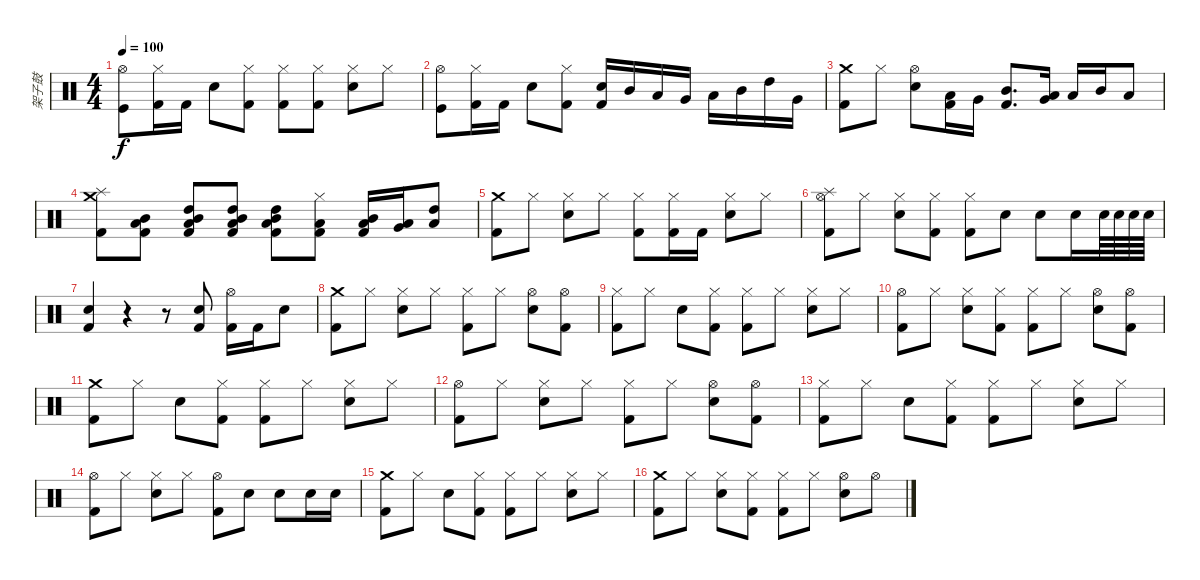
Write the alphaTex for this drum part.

\track ("架子鼓" "架子鼓") {instrument percussion}
\staff {score}
\articulation defaults
\ts (4 4)
\tempo 100
\clef neutral
\ks c
("Hi-Hat (open)" "Kick (hit)").8{dy f} ("Hi-Hat (closed)" "Kick (hit) 2").16 "Kick (hit) 2".16 "Electric Snare (hit)".8 ("Hi-Hat (closed)" "Kick (hit) 2").8 ("Hi-Hat (closed)" "Kick (hit) 2").8 ("Hi-Hat (closed)" "Kick (hit) 2").8 ("Hi-Hat (closed)" "Electric Snare (hit)").8 "Hi-Hat (closed)".8 |
("Hi-Hat (open)" "Kick (hit)").8 ("Hi-Hat (closed)" "Kick (hit) 2").16 "Kick (hit) 2".16 "Electric Snare (hit)".8 ("Hi-Hat (closed)" "Kick (hit) 2").8 ("Electric Snare (hit)" "Kick (hit) 2").16 "Mid Tom (hit)".16 "Low Tom (hit)".16 "Very Low Tom (hit)".16 "Low Tom (hit)".16 "Mid Tom (hit)".16 "High Tom (hit)".16 "Very Low Tom (hit)".16 |
("Crash medium (hit)" "Kick (hit) 2").8 "Hi-Hat (closed)".8 ("Hi-Hat (open)" "Electric Snare (hit)").8 ("Low Tom (hit)" "Kick (hit) 2").16 "Very Low Tom (hit)".16 ("Mid Tom (hit)" "Kick (hit) 2").8{d} ("Very Low Tom (hit)" "Low Tom (hit)").16 "Low Tom (hit)".16 "Mid Tom (hit)".16 "Low Floor Tom (hit)".8 |
("Splash (hit)" "Crash medium (hit)" "Kick (hit) 2").8 ("Mid Tom (hit)" "Low Tom (hit)" "Kick (hit) 2").8 ("Mid Tom (hit)" "High Tom (hit)" "Low Tom (hit)" "Kick (hit) 2").8 ("Mid Tom (hit)" "High Tom (hit)" "Low Tom (hit)" "Kick (hit) 2").8 ("Mid Tom (hit)" "High Tom (hit)" "Low Tom (hit)" "Kick (hit) 2").8 ("Hi-Hat (closed)" "Low Tom (hit)" "Kick (hit) 2").8 ("Mid Tom (hit)" "Low Tom (hit)" "Kick (hit) 2").16 ("Low Tom (hit)" "Very Low Tom (hit)").16 ("High Tom (hit)" "Low Floor Tom (hit)").8 |
("Crash medium (hit)" "Kick (hit) 2").8 "Hi-Hat (closed)".8 ("Hi-Hat (closed)" "Electric Snare (hit)").8 "Hi-Hat (closed)".8 ("Hi-Hat (closed)" "Kick (hit) 2").8 ("Hi-Hat (closed)" "Kick (hit) 2").16 "Kick (hit) 2".16 ("Hi-Hat (closed)" "Electric Snare (hit)").8 "Hi-Hat (closed)".8 |
("Hi-Hat (open)" "Splash (hit)" "Kick (hit) 2").8 "Hi-Hat (closed)".8 ("Hi-Hat (closed)" "Electric Snare (hit)").8 ("Hi-Hat (closed)" "Kick (hit) 2").8 ("Hi-Hat (closed)" "Kick (hit) 2").8 "Electric Snare (hit)".8 "Electric Snare (hit)".8 "Electric Snare (hit)".16 "Electric Snare (hit)".64 "Electric Snare (hit)".64 "Electric Snare (hit)".64 "Electric Snare (hit)".64 |
("Electric Snare (hit)" "Kick (hit) 2").4 r.4 r.8 ("Electric Snare (hit)" "Kick (hit) 2").8 ("Hi-Hat (open)" "Kick (hit) 2").16 "Kick (hit) 2".16 "Electric Snare (hit)".8 |
("Crash medium (hit)" "Kick (hit) 2").8 "Hi-Hat (closed)".8 ("Hi-Hat (closed)" "Electric Snare (hit)").8 "Hi-Hat (closed)".8 ("Hi-Hat (closed)" "Kick (hit) 2").8 "Hi-Hat (closed)".8 ("Hi-Hat (open)" "Electric Snare (hit)").8 ("Hi-Hat (open)" "Kick (hit) 2").8 |
("Hi-Hat (closed)" "Kick (hit) 2").8 "Hi-Hat (closed)".8 "Electric Snare (hit)".8 ("Hi-Hat (closed)" "Kick (hit) 2").8 ("Hi-Hat (closed)" "Kick (hit) 2").8 "Hi-Hat (closed)".8 ("Hi-Hat (closed)" "Electric Snare (hit)").8 "Hi-Hat (closed)".8 |
("Hi-Hat (open)" "Kick (hit) 2").8 "Hi-Hat (closed)".8 ("Hi-Hat (closed)" "Electric Snare (hit)").8 ("Hi-Hat (closed)" "Kick (hit) 2").8 ("Hi-Hat (closed)" "Kick (hit) 2").8 "Hi-Hat (closed)".8 ("Hi-Hat (open)" "Electric Snare (hit)").8 ("Hi-Hat (open)" "Kick (hit) 2").8 |
("Crash medium (hit)" "Kick (hit) 2").8 "Hi-Hat (closed)".8 "Electric Snare (hit)".8 ("Hi-Hat (closed)" "Kick (hit) 2").8 ("Hi-Hat (closed)" "Kick (hit) 2").8 "Hi-Hat (closed)".8 ("Hi-Hat (closed)" "Electric Snare (hit)").8 "Hi-Hat (closed)".8 |
("Hi-Hat (open)" "Kick (hit) 2").8 "Hi-Hat (closed)".8 ("Hi-Hat (closed)" "Electric Snare (hit)").8 "Hi-Hat (closed)".8 ("Hi-Hat (closed)" "Kick (hit) 2").8 "Hi-Hat (closed)".8 ("Hi-Hat (open)" "Electric Snare (hit)").8 ("Hi-Hat (open)" "Kick (hit) 2").8 |
("Hi-Hat (closed)" "Kick (hit) 2").8 "Hi-Hat (closed)".8 "Electric Snare (hit)".8 ("Hi-Hat (closed)" "Kick (hit) 2").8 ("Hi-Hat (closed)" "Kick (hit) 2").8 "Hi-Hat (closed)".8 ("Hi-Hat (closed)" "Electric Snare (hit)").8 "Hi-Hat (closed)".8 |
("Hi-Hat (open)" "Kick (hit) 2").8 "Hi-Hat (closed)".8 ("Hi-Hat (closed)" "Electric Snare (hit)").8 "Hi-Hat (closed)".8 ("Hi-Hat (open)" "Kick (hit) 2").8 "Electric Snare (hit)".8 "Electric Snare (hit)".8 "Electric Snare (hit)".16 "Electric Snare (hit)".16 |
("Crash medium (hit)" "Kick (hit) 2").8 "Hi-Hat (closed)".8 "Electric Snare (hit)".8 ("Hi-Hat (closed)" "Kick (hit) 2").8 ("Hi-Hat (closed)" "Kick (hit) 2").8 "Hi-Hat (closed)".8 ("Hi-Hat (closed)" "Electric Snare (hit)").8 "Hi-Hat (closed)".8 |
("Crash medium (hit)" "Kick (hit) 2").8 "Hi-Hat (closed)".8 ("Hi-Hat (closed)" "Electric Snare (hit)").8 ("Hi-Hat (closed)" "Kick (hit) 2").8 ("Hi-Hat (closed)" "Kick (hit) 2").8 "Hi-Hat (closed)".8 ("Hi-Hat (open)" "Electric Snare (hit)").8 "Hi-Hat (open)".8
